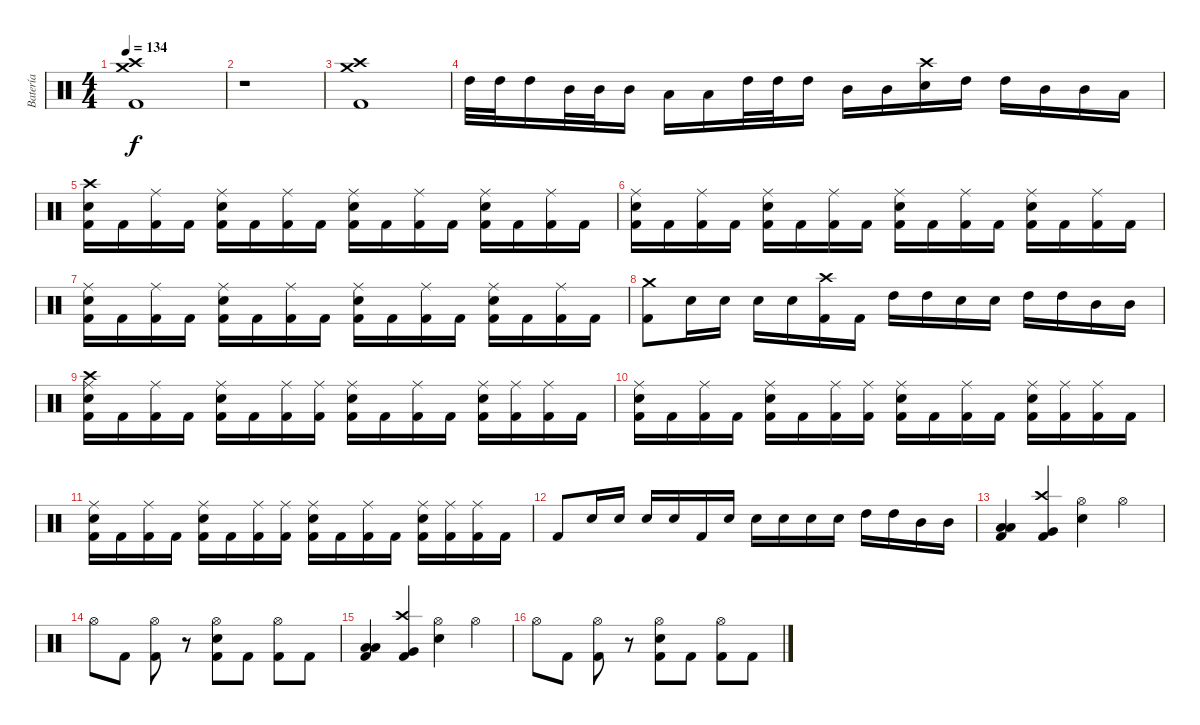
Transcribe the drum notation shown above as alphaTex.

\track ("Batería" "Batería") {instrument percussion}
\staff {score}
\articulation defaults
\ts (4 4)
\tempo 134
\clef neutral
\ks c
("Kick (hit) 2" "Crash medium (hit)" "Crash high (hit)").1{dy f} |
r.1 |
("Kick (hit) 2" "Crash medium (hit)" "Crash high (hit)").1 |
"High Tom (hit)".32 "High Tom (hit)".32 "High Tom (hit)".16 "Mid Tom (hit)".32 "Mid Tom (hit)".32 "Mid Tom (hit)".16 "Low Tom (hit)".16 "Low Tom (hit)".16 "High Tom (hit)".32 "High Tom (hit)".32 "High Tom (hit)".16 "Mid Tom (hit)".16 "Mid Tom (hit)".16 ("Crash high (hit)" "Electric Snare (hit)").16 "High Tom (hit)".16 "High Tom (hit)".16 "Mid Tom (hit)".16 "Mid Tom (hit)".16 "Low Tom (hit)".16 |
("Crash high (hit)" "Electric Snare (hit)" "Kick (hit) 2").16 "Kick (hit) 2".16 ("Ride (middle)" "Kick (hit) 2").16 "Kick (hit) 2".16 ("Ride (middle)" "Electric Snare (hit)" "Kick (hit) 2").16 "Kick (hit) 2".16 ("Ride (middle)" "Kick (hit) 2").16 "Kick (hit) 2".16 ("Ride (middle)" "Electric Snare (hit)" "Kick (hit) 2").16 "Kick (hit) 2".16 ("Ride (middle)" "Kick (hit) 2").16 "Kick (hit) 2".16 ("Ride (middle)" "Electric Snare (hit)" "Kick (hit) 2").16 "Kick (hit) 2".16 ("Ride (middle)" "Kick (hit) 2").16 "Kick (hit) 2".16 |
("Ride (middle)" "Electric Snare (hit)" "Kick (hit) 2").16 "Kick (hit) 2".16 ("Ride (middle)" "Kick (hit) 2").16 "Kick (hit) 2".16 ("Ride (middle)" "Electric Snare (hit)" "Kick (hit) 2").16 "Kick (hit) 2".16 ("Ride (middle)" "Kick (hit) 2").16 "Kick (hit) 2".16 ("Ride (middle)" "Electric Snare (hit)" "Kick (hit) 2").16 "Kick (hit) 2".16 ("Ride (middle)" "Kick (hit) 2").16 "Kick (hit) 2".16 ("Ride (middle)" "Electric Snare (hit)" "Kick (hit) 2").16 "Kick (hit) 2".16 ("Ride (middle)" "Kick (hit) 2").16 "Kick (hit) 2".16 |
("Ride (middle)" "Electric Snare (hit)" "Kick (hit) 2").16 "Kick (hit) 2".16 ("Ride (middle)" "Kick (hit) 2").16 "Kick (hit) 2".16 ("Ride (middle)" "Electric Snare (hit)" "Kick (hit) 2").16 "Kick (hit) 2".16 ("Ride (middle)" "Kick (hit) 2").16 "Kick (hit) 2".16 ("Ride (middle)" "Electric Snare (hit)" "Kick (hit) 2").16 "Kick (hit) 2".16 ("Ride (middle)" "Kick (hit) 2").16 "Kick (hit) 2".16 ("Ride (middle)" "Electric Snare (hit)" "Kick (hit) 2").16 "Kick (hit) 2".16 ("Ride (middle)" "Kick (hit) 2").16 "Kick (hit) 2".16 |
("Crash medium (hit)" "Kick (hit) 2").8 "Electric Snare (hit)".16 "Electric Snare (hit)".16 "Electric Snare (hit)".16 "Electric Snare (hit)".16 ("Crash high (hit)" "Kick (hit) 2").16 "Kick (hit) 2".16 "High Tom (hit)".16 "High Tom (hit)".16 "Electric Snare (hit)".16 "Electric Snare (hit)".16 "High Tom (hit)".16 "High Tom (hit)".16 "Mid Tom (hit)".16 "Mid Tom (hit)".16 |
("Crash high (hit)" "Ride (middle)" "Electric Snare (hit)" "Kick (hit) 2").16 "Kick (hit) 2".16 ("Ride (middle)" "Kick (hit) 2").16 "Kick (hit) 2".16 ("Ride (middle)" "Electric Snare (hit)" "Kick (hit) 2").16 "Kick (hit) 2".16 ("Ride (middle)" "Kick (hit) 2").16 ("Ride (middle)" "Kick (hit) 2").16 ("Ride (middle)" "Electric Snare (hit)" "Kick (hit) 2").16 "Kick (hit) 2".16 ("Ride (middle)" "Kick (hit) 2").16 "Kick (hit) 2".16 ("Ride (middle)" "Electric Snare (hit)" "Kick (hit) 2").16 ("Ride (middle)" "Kick (hit) 2").16 ("Ride (middle)" "Kick (hit) 2").16 "Kick (hit) 2".16 |
("Ride (middle)" "Electric Snare (hit)" "Kick (hit) 2").16 "Kick (hit) 2".16 ("Ride (middle)" "Kick (hit) 2").16 "Kick (hit) 2".16 ("Ride (middle)" "Electric Snare (hit)" "Kick (hit) 2").16 "Kick (hit) 2".16 ("Ride (middle)" "Kick (hit) 2").16 ("Ride (middle)" "Kick (hit) 2").16 ("Ride (middle)" "Electric Snare (hit)" "Kick (hit) 2").16 "Kick (hit) 2".16 ("Ride (middle)" "Kick (hit) 2").16 "Kick (hit) 2".16 ("Ride (middle)" "Electric Snare (hit)" "Kick (hit) 2").16 ("Ride (middle)" "Kick (hit) 2").16 ("Ride (middle)" "Kick (hit) 2").16 "Kick (hit) 2".16 |
("Ride (middle)" "Electric Snare (hit)" "Kick (hit) 2").16 "Kick (hit) 2".16 ("Ride (middle)" "Kick (hit) 2").16 "Kick (hit) 2".16 ("Ride (middle)" "Electric Snare (hit)" "Kick (hit) 2").16 "Kick (hit) 2".16 ("Ride (middle)" "Kick (hit) 2").16 ("Ride (middle)" "Kick (hit) 2").16 ("Ride (middle)" "Electric Snare (hit)" "Kick (hit) 2").16 "Kick (hit) 2".16 ("Ride (middle)" "Kick (hit) 2").16 "Kick (hit) 2".16 ("Ride (middle)" "Electric Snare (hit)" "Kick (hit) 2").16 ("Ride (middle)" "Kick (hit) 2").16 ("Ride (middle)" "Kick (hit) 2").16 "Kick (hit) 2".16 |
"Kick (hit) 2".8 "Electric Snare (hit)".16 "Electric Snare (hit)".16 "Electric Snare (hit)".16 "Electric Snare (hit)".16 "Kick (hit) 2".16 "Electric Snare (hit)".16 "Electric Snare (hit)".16 "Electric Snare (hit)".16 "Electric Snare (hit)".16 "Electric Snare (hit)".16 "High Tom (hit)".16 "High Tom (hit)".16 "Mid Tom (hit)".16 "Mid Tom (hit)".16 |
("Low Tom (hit)" "Low Floor Tom (hit)" "Kick (hit) 2").4 ("Crash high (hit)" "Very Low Tom (hit)" "Kick (hit) 2").4 ("Hi-Hat (open)" "Electric Snare (hit)").4 "Hi-Hat (open)".4 |
"Hi-Hat (open)".8 "Kick (hit) 2".8 ("Hi-Hat (open)" "Kick (hit) 2").8 r.8 ("Hi-Hat (open)" "Electric Snare (hit)" "Kick (hit) 2").8 "Kick (hit) 2".8 ("Hi-Hat (open)" "Kick (hit) 2").8 "Kick (hit) 2".8 |
("Low Tom (hit)" "Low Floor Tom (hit)" "Kick (hit) 2").4 ("Crash high (hit)" "Very Low Tom (hit)" "Kick (hit) 2").4 ("Hi-Hat (open)" "Electric Snare (hit)").4 "Hi-Hat (open)".4 |
"Hi-Hat (open)".8 "Kick (hit) 2".8 ("Hi-Hat (open)" "Kick (hit) 2").8 r.8 ("Hi-Hat (open)" "Electric Snare (hit)" "Kick (hit) 2").8 "Kick (hit) 2".8 ("Hi-Hat (open)" "Kick (hit) 2").8 "Kick (hit) 2".8
